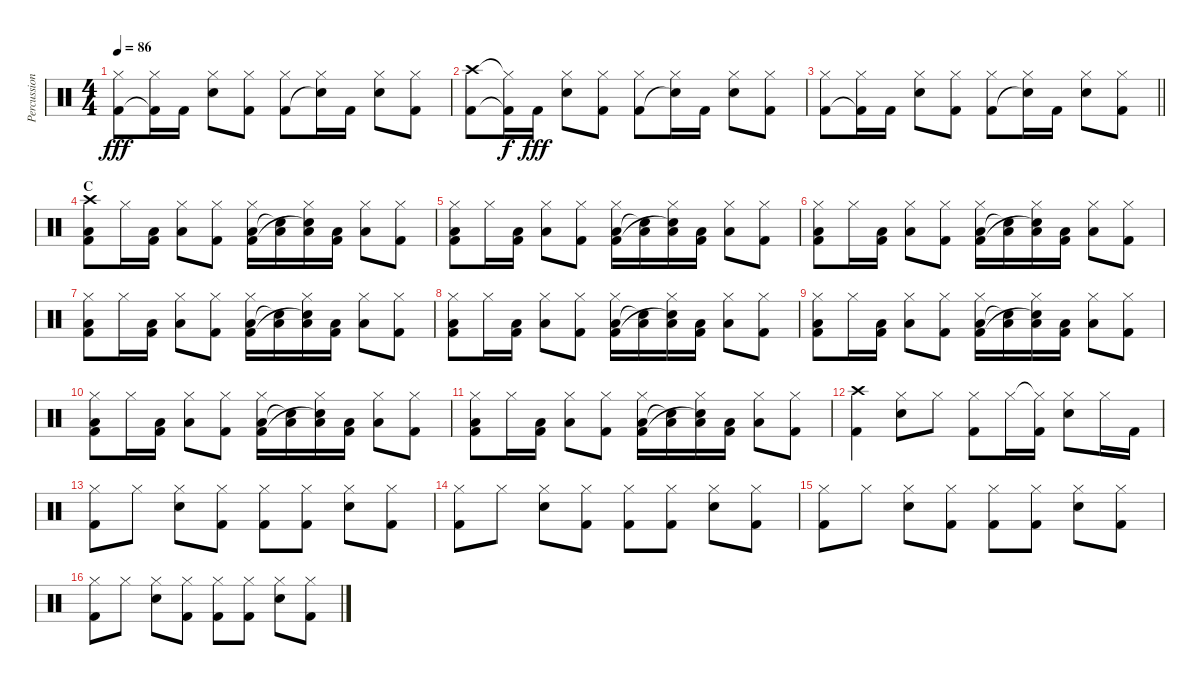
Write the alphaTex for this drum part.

\track ("Percussion" "Percussion") {instrument percussion}
\staff {score}
\articulation defaults
\ts (4 4)
\tempo 86
\clef neutral
\ks c
("Hi-Hat (closed)" "Kick (hit) 2").8{dy fff} ("Hi-Hat (closed)" "Kick (hit) 2"{t}).16 "Kick (hit) 2".16 ("Hi-Hat (closed)" "Electric Snare (hit)").8 ("Hi-Hat (closed)" "Kick (hit) 2").8 ("Hi-Hat (closed)" "Kick (hit) 2").8 ("Hi-Hat (closed)" "Snare (hit)"{t}).16 "Kick (hit) 2".16 ("Hi-Hat (closed)" "Electric Snare (hit)").8 ("Hi-Hat (closed)" "Kick (hit) 2").8 |
("Crash high (hit)" "Kick (hit) 2").8 ("Hi-Hat (closed)"{t} "Kick (hit) 2"{t}).16{dy f} "Kick (hit) 2".16{dy fff} ("Hi-Hat (closed)" "Electric Snare (hit)").8 ("Hi-Hat (closed)" "Kick (hit) 2").8 ("Hi-Hat (closed)" "Kick (hit) 2").8 ("Hi-Hat (closed)" "Snare (hit)"{t}).16 "Kick (hit) 2".16 ("Hi-Hat (closed)" "Electric Snare (hit)").8 ("Hi-Hat (closed)" "Kick (hit) 2").8 |
\barLineRight lightlight
("Hi-Hat (closed)" "Kick (hit) 2").8 ("Hi-Hat (closed)" "Kick (hit) 2"{t}).16 "Kick (hit) 2".16 ("Hi-Hat (closed)" "Electric Snare (hit)").8 ("Hi-Hat (closed)" "Kick (hit) 2").8 ("Hi-Hat (closed)" "Kick (hit) 2").8 ("Hi-Hat (closed)" "Snare (hit)"{t}).16 "Kick (hit) 2".16 ("Hi-Hat (closed)" "Electric Snare (hit)").8 ("Hi-Hat (closed)" "Kick (hit) 2").8 |
\section ("" "C")
("Crash high (hit)" "Low Tom (hit)" "Kick (hit) 2").8 "Hi-Hat (closed)".16 ("Low Tom (hit)" "Kick (hit) 2").16 ("Hi-Hat (closed)" "Low Tom (hit)").8 ("Hi-Hat (closed)" "Kick (hit) 2").8 ("Hi-Hat (closed)" "Low Tom (hit)" "Kick (hit) 2").16 ("Low Tom (hit)" "Snare (hit)"{t}).16 ("Hi-Hat (closed)" "Low Tom (hit)" "Snare (hit)"{t}).16 ("Low Tom (hit)" "Kick (hit) 2").16 ("Hi-Hat (closed)" "Low Tom (hit)").8 ("Hi-Hat (closed)" "Kick (hit) 2").8 |
("Hi-Hat (closed)" "Low Tom (hit)" "Kick (hit) 2").8 "Hi-Hat (closed)".16 ("Low Tom (hit)" "Kick (hit) 2").16 ("Hi-Hat (closed)" "Low Tom (hit)").8 ("Hi-Hat (closed)" "Kick (hit) 2").8 ("Hi-Hat (closed)" "Low Tom (hit)" "Kick (hit) 2").16 ("Low Tom (hit)" "Snare (hit)"{t}).16 ("Hi-Hat (closed)" "Low Tom (hit)" "Snare (hit)"{t}).16 ("Low Tom (hit)" "Kick (hit) 2").16 ("Hi-Hat (closed)" "Low Tom (hit)").8 ("Hi-Hat (closed)" "Kick (hit) 2").8 |
("Hi-Hat (closed)" "Low Tom (hit)" "Kick (hit) 2").8 "Hi-Hat (closed)".16 ("Low Tom (hit)" "Kick (hit) 2").16 ("Hi-Hat (closed)" "Low Tom (hit)").8 ("Hi-Hat (closed)" "Kick (hit) 2").8 ("Hi-Hat (closed)" "Low Tom (hit)" "Kick (hit) 2").16 ("Low Tom (hit)" "Snare (hit)"{t}).16 ("Hi-Hat (closed)" "Low Tom (hit)" "Snare (hit)"{t}).16 ("Low Tom (hit)" "Kick (hit) 2").16 ("Hi-Hat (closed)" "Low Tom (hit)").8 ("Hi-Hat (closed)" "Kick (hit) 2").8 |
("Hi-Hat (closed)" "Low Tom (hit)" "Kick (hit) 2").8 "Hi-Hat (closed)".16 ("Low Tom (hit)" "Kick (hit) 2").16 ("Hi-Hat (closed)" "Low Tom (hit)").8 ("Hi-Hat (closed)" "Kick (hit) 2").8 ("Hi-Hat (closed)" "Low Tom (hit)" "Kick (hit) 2").16 ("Low Tom (hit)" "Snare (hit)"{t}).16 ("Hi-Hat (closed)" "Low Tom (hit)" "Snare (hit)"{t}).16 ("Low Tom (hit)" "Kick (hit) 2").16 ("Hi-Hat (closed)" "Low Tom (hit)").8 ("Hi-Hat (closed)" "Kick (hit) 2").8 |
("Hi-Hat (closed)" "Low Tom (hit)" "Kick (hit) 2").8 "Hi-Hat (closed)".16 ("Low Tom (hit)" "Kick (hit) 2").16 ("Hi-Hat (closed)" "Low Tom (hit)").8 ("Hi-Hat (closed)" "Kick (hit) 2").8 ("Hi-Hat (closed)" "Low Tom (hit)" "Kick (hit) 2").16 ("Low Tom (hit)" "Snare (hit)"{t}).16 ("Hi-Hat (closed)" "Low Tom (hit)" "Snare (hit)"{t}).16 ("Low Tom (hit)" "Kick (hit) 2").16 ("Hi-Hat (closed)" "Low Tom (hit)").8 ("Hi-Hat (closed)" "Kick (hit) 2").8 |
("Hi-Hat (closed)" "Low Tom (hit)" "Kick (hit) 2").8 "Hi-Hat (closed)".16 ("Low Tom (hit)" "Kick (hit) 2").16 ("Hi-Hat (closed)" "Low Tom (hit)").8 ("Hi-Hat (closed)" "Kick (hit) 2").8 ("Hi-Hat (closed)" "Low Tom (hit)" "Kick (hit) 2").16 ("Low Tom (hit)" "Snare (hit)"{t}).16 ("Hi-Hat (closed)" "Low Tom (hit)" "Snare (hit)"{t}).16 ("Low Tom (hit)" "Kick (hit) 2").16 ("Hi-Hat (closed)" "Low Tom (hit)").8 ("Hi-Hat (closed)" "Kick (hit) 2").8 |
("Hi-Hat (closed)" "Low Tom (hit)" "Kick (hit) 2").8 "Hi-Hat (closed)".16 ("Low Tom (hit)" "Kick (hit) 2").16 ("Hi-Hat (closed)" "Low Tom (hit)").8 ("Hi-Hat (closed)" "Kick (hit) 2").8 ("Hi-Hat (closed)" "Low Tom (hit)" "Kick (hit) 2").16 ("Low Tom (hit)" "Snare (hit)"{t}).16 ("Hi-Hat (closed)" "Low Tom (hit)" "Snare (hit)"{t}).16 ("Low Tom (hit)" "Kick (hit) 2").16 ("Hi-Hat (closed)" "Low Tom (hit)").8 ("Hi-Hat (closed)" "Kick (hit) 2").8 |
("Hi-Hat (closed)" "Low Tom (hit)" "Kick (hit) 2").8 "Hi-Hat (closed)".16 ("Low Tom (hit)" "Kick (hit) 2").16 ("Hi-Hat (closed)" "Low Tom (hit)").8 ("Hi-Hat (closed)" "Kick (hit) 2").8 ("Hi-Hat (closed)" "Low Tom (hit)" "Kick (hit) 2").16 ("Low Tom (hit)" "Snare (hit)"{t}).16 ("Hi-Hat (closed)" "Low Tom (hit)" "Snare (hit)"{t}).16 ("Low Tom (hit)" "Kick (hit) 2").16 ("Hi-Hat (closed)" "Low Tom (hit)").8 ("Hi-Hat (closed)" "Kick (hit) 2").8 |
("Crash high (hit)" "Kick (hit) 2").4 ("Hi-Hat (closed)" "Electric Snare (hit)").8 "Hi-Hat (closed)".8 ("Hi-Hat (closed)" "Kick (hit) 2").8 "Hi-Hat (closed)".16 ("Hi-Hat (closed)"{t} "Kick (hit) 2").16 ("Hi-Hat (closed)" "Electric Snare (hit)").8 "Hi-Hat (closed)".16 "Kick (hit) 2".16 |
("Hi-Hat (closed)" "Kick (hit) 2").8 "Hi-Hat (closed)".8 ("Hi-Hat (closed)" "Electric Snare (hit)").8 ("Hi-Hat (closed)" "Kick (hit) 2").8 ("Hi-Hat (closed)" "Kick (hit) 2").8 ("Hi-Hat (closed)" "Kick (hit) 2").8 ("Hi-Hat (closed)" "Electric Snare (hit)").8 ("Hi-Hat (closed)" "Kick (hit) 2").8 |
("Hi-Hat (closed)" "Kick (hit) 2").8 "Hi-Hat (closed)".8 ("Hi-Hat (closed)" "Electric Snare (hit)").8 ("Hi-Hat (closed)" "Kick (hit) 2").8 ("Hi-Hat (closed)" "Kick (hit) 2").8 ("Hi-Hat (closed)" "Kick (hit) 2").8 ("Hi-Hat (closed)" "Electric Snare (hit)").8 ("Hi-Hat (closed)" "Kick (hit) 2").8 |
("Hi-Hat (closed)" "Kick (hit) 2").8 "Hi-Hat (closed)".8 ("Hi-Hat (closed)" "Electric Snare (hit)").8 ("Hi-Hat (closed)" "Kick (hit) 2").8 ("Hi-Hat (closed)" "Kick (hit) 2").8 ("Hi-Hat (closed)" "Kick (hit) 2").8 ("Hi-Hat (closed)" "Electric Snare (hit)").8 ("Hi-Hat (closed)" "Kick (hit) 2").8 |
("Hi-Hat (closed)" "Kick (hit) 2").8 "Hi-Hat (closed)".8 ("Hi-Hat (closed)" "Electric Snare (hit)").8 ("Hi-Hat (closed)" "Kick (hit) 2").8 ("Hi-Hat (closed)" "Kick (hit) 2").8 ("Hi-Hat (closed)" "Kick (hit) 2").8 ("Hi-Hat (closed)" "Electric Snare (hit)").8 ("Hi-Hat (closed)" "Kick (hit) 2").8
